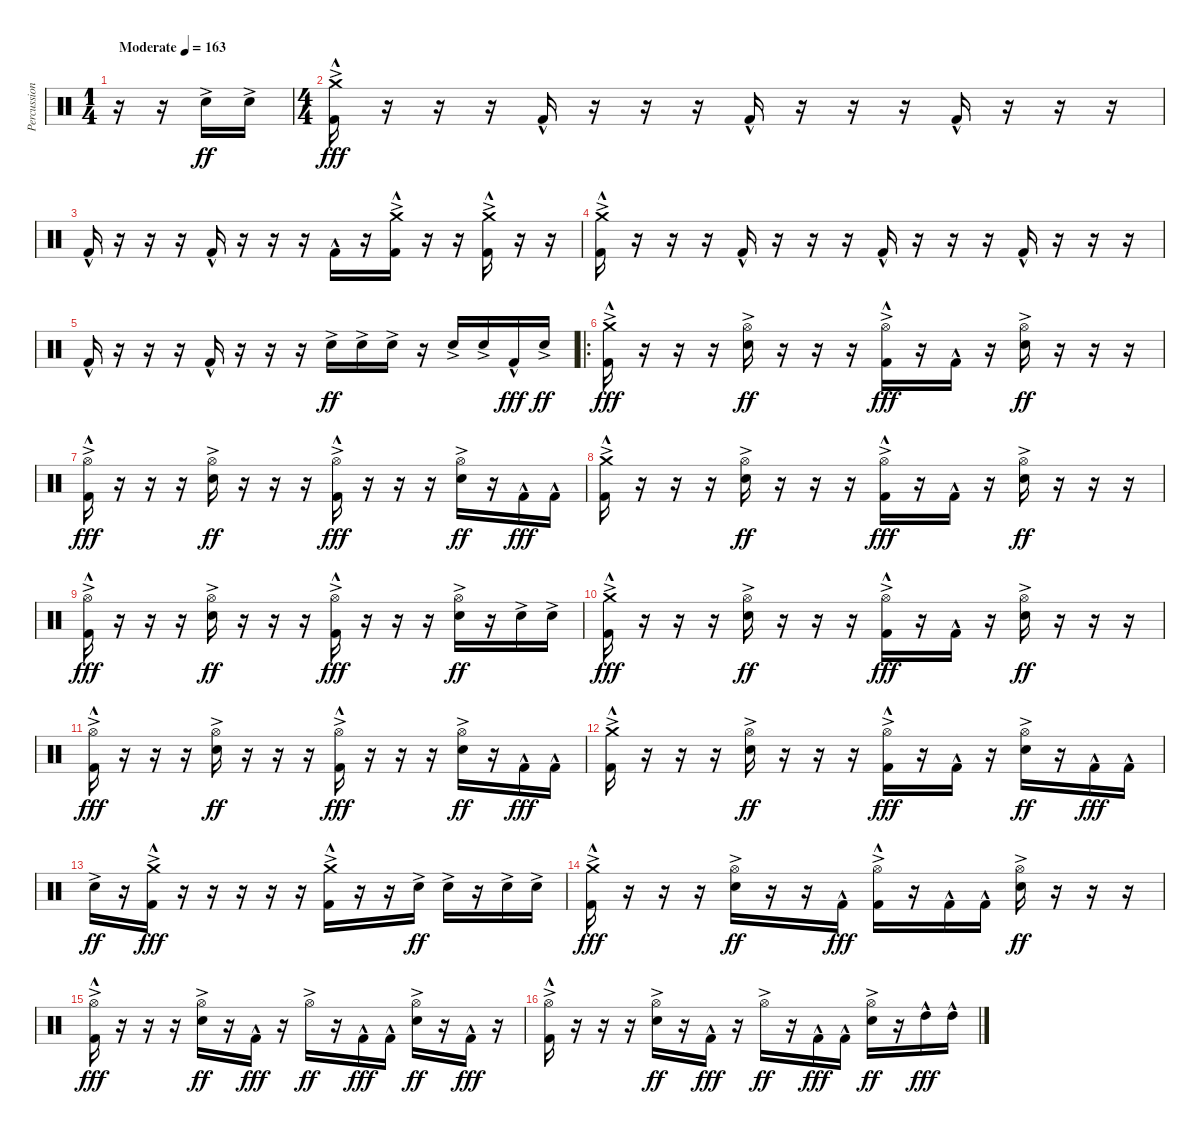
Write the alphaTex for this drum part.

\track ("Percussion" "Percussion") {instrument percussion}
\staff {score}
\articulation defaults
\ts (1 4)
\tempo (163 "Moderate")
\clef neutral
\ks c
r.16{dy ff} r.16 "Snare (hit) 2"{ac}.16 "Snare (hit) 2"{ac}.16 |
\ts (4 4)
("Crash medium (hit)"{ac} "Kick (hit) 2"{hac}).16{dy fff} r.16 r.16 r.16 "Kick (hit) 2"{hac}.16 r.16 r.16 r.16 "Kick (hit) 2"{hac}.16 r.16 r.16 r.16 "Kick (hit) 2"{hac}.16 r.16 r.16 r.16 |
"Kick (hit) 2"{hac}.16 r.16 r.16 r.16 "Kick (hit) 2"{hac}.16 r.16 r.16 r.16 "Kick (hit) 2"{hac}.16 r.16 ("Crash medium (hit)"{ac} "Kick (hit) 2"{hac}).16 r.16 r.16 ("Crash medium (hit)"{ac} "Kick (hit) 2"{hac}).16 r.16 r.16 |
("Crash medium (hit)"{ac} "Kick (hit) 2"{hac}).16 r.16 r.16 r.16 "Kick (hit) 2"{hac}.16 r.16 r.16 r.16 "Kick (hit) 2"{hac}.16 r.16 r.16 r.16 "Kick (hit) 2"{hac}.16 r.16 r.16 r.16 |
"Kick (hit) 2"{hac}.16 r.16 r.16 r.16 "Kick (hit) 2"{hac}.16 r.16 r.16 r.16 "Snare (hit) 2"{ac}.16{dy ff} "Snare (hit) 2"{ac}.16 "Snare (hit) 2"{ac}.16 r.16 "Snare (hit) 2"{ac}.16 "Snare (hit) 2"{ac}.16 "Kick (hit) 2"{hac}.16{dy fff} "Snare (hit) 2"{ac}.16{dy ff} |
\ro
("Crash medium (hit)"{ac} "Kick (hit) 2"{hac}).16{dy fff} r.16 r.16 r.16 ("Hi-Hat (open)"{ac} "Snare (hit) 2"{ac}).16{dy ff} r.16 r.16 r.16 ("Hi-Hat (open)"{ac} "Kick (hit) 2"{hac}).16{dy fff} r.16 "Kick (hit) 2"{hac}.16 r.16 ("Hi-Hat (open)"{ac} "Snare (hit) 2"{ac}).16{dy ff} r.16 r.16 r.16 |
("Hi-Hat (open)"{ac} "Kick (hit) 2"{hac}).16{dy fff} r.16 r.16 r.16 ("Hi-Hat (open)"{ac} "Snare (hit) 2"{ac}).16{dy ff} r.16 r.16 r.16 ("Hi-Hat (open)"{ac} "Kick (hit) 2"{hac}).16{dy fff} r.16 r.16 r.16 ("Hi-Hat (open)"{ac} "Snare (hit) 2"{ac}).16{dy ff} r.16 "Kick (hit) 2"{hac}.16{dy fff} "Kick (hit) 2"{hac}.16 |
("Crash medium (hit)"{ac} "Kick (hit) 2"{hac}).16 r.16 r.16 r.16 ("Hi-Hat (open)"{ac} "Snare (hit) 2"{ac}).16{dy ff} r.16 r.16 r.16 ("Hi-Hat (open)"{ac} "Kick (hit) 2"{hac}).16{dy fff} r.16 "Kick (hit) 2"{hac}.16 r.16 ("Hi-Hat (open)"{ac} "Snare (hit) 2"{ac}).16{dy ff} r.16 r.16 r.16 |
("Hi-Hat (open)"{ac} "Kick (hit) 2"{hac}).16{dy fff} r.16 r.16 r.16 ("Hi-Hat (open)"{ac} "Snare (hit) 2"{ac}).16{dy ff} r.16 r.16 r.16 ("Hi-Hat (open)"{ac} "Kick (hit) 2"{hac}).16{dy fff} r.16 r.16 r.16 ("Hi-Hat (open)"{ac} "Snare (hit) 2"{ac}).16{dy ff} r.16 "Snare (hit) 2"{ac}.16 "Snare (hit) 2"{ac}.16 |
("Crash medium (hit)"{ac} "Kick (hit) 2"{hac}).16{dy fff} r.16 r.16 r.16 ("Hi-Hat (open)"{ac} "Snare (hit) 2"{ac}).16{dy ff} r.16 r.16 r.16 ("Hi-Hat (open)"{ac} "Kick (hit) 2"{hac}).16{dy fff} r.16 "Kick (hit) 2"{hac}.16 r.16 ("Hi-Hat (open)"{ac} "Snare (hit) 2"{ac}).16{dy ff} r.16 r.16 r.16 |
("Hi-Hat (open)"{ac} "Kick (hit) 2"{hac}).16{dy fff} r.16 r.16 r.16 ("Hi-Hat (open)"{ac} "Snare (hit) 2"{ac}).16{dy ff} r.16 r.16 r.16 ("Hi-Hat (open)"{ac} "Kick (hit) 2"{hac}).16{dy fff} r.16 r.16 r.16 ("Hi-Hat (open)"{ac} "Snare (hit) 2"{ac}).16{dy ff} r.16 "Kick (hit) 2"{hac}.16{dy fff} "Kick (hit) 2"{hac}.16 |
("Crash medium (hit)"{ac} "Kick (hit) 2"{hac}).16 r.16 r.16 r.16 ("Hi-Hat (open)"{ac} "Snare (hit) 2"{ac}).16{dy ff} r.16 r.16 r.16 ("Hi-Hat (open)"{ac} "Kick (hit) 2"{hac}).16{dy fff} r.16 "Kick (hit) 2"{hac}.16 r.16 ("Hi-Hat (open)"{ac} "Snare (hit) 2"{ac}).16{dy ff} r.16 "Kick (hit) 2"{hac}.16{dy fff} "Kick (hit) 2"{hac}.16 |
"Snare (hit) 2"{ac}.16{dy ff} r.16 ("Crash medium (hit)"{ac} "Kick (hit) 2"{hac}).16{dy fff} r.16 r.16 r.16 r.16 r.16 ("Crash medium (hit)"{ac} "Kick (hit) 2"{hac}).16 r.16 r.16 "Snare (hit) 2"{ac}.16{dy ff} "Snare (hit) 2"{ac}.16 r.16 "Snare (hit) 2"{ac}.16 "Snare (hit) 2"{ac}.16 |
("Crash medium (hit)"{ac} "Kick (hit) 2"{hac}).16{dy fff} r.16 r.16 r.16 ("Hi-Hat (open)"{ac} "Snare (hit) 2"{ac}).16{dy ff} r.16 r.16 "Kick (hit) 2"{hac}.16{dy fff} ("Hi-Hat (open)"{ac} "Kick (hit) 2"{hac}).16 r.16 "Kick (hit) 2"{hac}.16 "Kick (hit) 2"{hac}.16 ("Hi-Hat (open)"{ac} "Snare (hit) 2"{ac}).16{dy ff} r.16 r.16 r.16 |
("Hi-Hat (open)"{ac} "Kick (hit) 2"{hac}).16{dy fff} r.16 r.16 r.16 ("Hi-Hat (open)"{ac} "Snare (hit) 2"{ac}).16{dy ff} r.16 "Kick (hit) 2"{hac}.16{dy fff} r.16 "Hi-Hat (open)"{ac}.16{dy ff} r.16 "Kick (hit) 2"{hac}.16{dy fff} "Kick (hit) 2"{hac}.16 ("Hi-Hat (open)"{ac} "Snare (hit) 2"{ac}).16{dy ff} r.16 "Kick (hit) 2"{hac}.16{dy fff} r.16 |
("Hi-Hat (open)"{ac} "Kick (hit) 2"{hac}).16 r.16 r.16 r.16 ("Hi-Hat (open)"{ac} "Snare (hit) 2"{ac}).16{dy ff} r.16 "Kick (hit) 2"{hac}.16{dy fff} r.16 "Hi-Hat (open)"{ac}.16{dy ff} r.16 "Kick (hit) 2"{hac}.16{dy fff} "Kick (hit) 2"{hac}.16 ("Hi-Hat (open)"{ac} "Snare (hit) 2"{ac}).16{dy ff} r.16 "High Tom (hit)"{hac}.16{dy fff} "High Tom (hit)"{hac}.16
